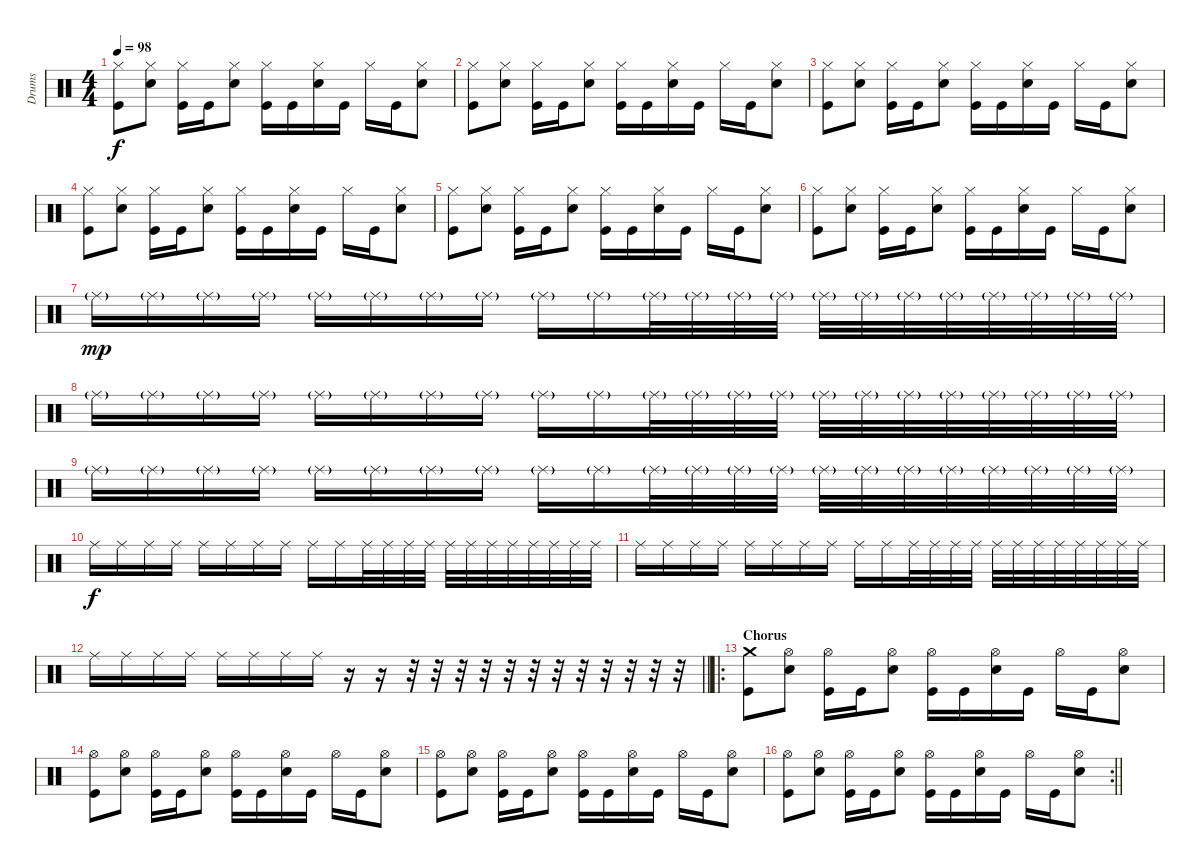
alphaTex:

\track ("Drums" "Drums") {instrument percussion}
\staff {score}
\articulation defaults
\ts (4 4)
\tempo 98
\clef neutral
\ks c
("Hi-Hat (closed)" "Kick (hit)").8{dy f} ("Hi-Hat (closed)" "Electric Snare (hit)").8 ("Hi-Hat (closed)" "Kick (hit)").16 "Kick (hit)".16 ("Hi-Hat (closed)" "Electric Snare (hit)").8 ("Hi-Hat (closed)" "Kick (hit)").16 "Kick (hit)".16 ("Hi-Hat (closed)" "Electric Snare (hit)").16 "Kick (hit)".16 "Hi-Hat (closed)".16 "Kick (hit)".16 ("Hi-Hat (closed)" "Electric Snare (hit)").8 |
("Hi-Hat (closed)" "Kick (hit)").8 ("Hi-Hat (closed)" "Electric Snare (hit)").8 ("Hi-Hat (closed)" "Kick (hit)").16 "Kick (hit)".16 ("Hi-Hat (closed)" "Electric Snare (hit)").8 ("Hi-Hat (closed)" "Kick (hit)").16 "Kick (hit)".16 ("Hi-Hat (closed)" "Electric Snare (hit)").16 "Kick (hit)".16 "Hi-Hat (closed)".16 "Kick (hit)".16 ("Hi-Hat (closed)" "Electric Snare (hit)").8 |
("Hi-Hat (closed)" "Kick (hit)").8 ("Hi-Hat (closed)" "Electric Snare (hit)").8 ("Hi-Hat (closed)" "Kick (hit)").16 "Kick (hit)".16 ("Hi-Hat (closed)" "Electric Snare (hit)").8 ("Hi-Hat (closed)" "Kick (hit)").16 "Kick (hit)".16 ("Hi-Hat (closed)" "Electric Snare (hit)").16 "Kick (hit)".16 "Hi-Hat (closed)".16 "Kick (hit)".16 ("Hi-Hat (closed)" "Electric Snare (hit)").8 |
("Hi-Hat (closed)" "Kick (hit)").8 ("Hi-Hat (closed)" "Electric Snare (hit)").8 ("Hi-Hat (closed)" "Kick (hit)").16 "Kick (hit)".16 ("Hi-Hat (closed)" "Electric Snare (hit)").8 ("Hi-Hat (closed)" "Kick (hit)").16 "Kick (hit)".16 ("Hi-Hat (closed)" "Electric Snare (hit)").16 "Kick (hit)".16 "Hi-Hat (closed)".16 "Kick (hit)".16 ("Hi-Hat (closed)" "Electric Snare (hit)").8 |
("Hi-Hat (closed)" "Kick (hit)").8 ("Hi-Hat (closed)" "Electric Snare (hit)").8 ("Hi-Hat (closed)" "Kick (hit)").16 "Kick (hit)".16 ("Hi-Hat (closed)" "Electric Snare (hit)").8 ("Hi-Hat (closed)" "Kick (hit)").16 "Kick (hit)".16 ("Hi-Hat (closed)" "Electric Snare (hit)").16 "Kick (hit)".16 "Hi-Hat (closed)".16 "Kick (hit)".16 ("Hi-Hat (closed)" "Electric Snare (hit)").8 |
("Hi-Hat (closed)" "Kick (hit)").8 ("Hi-Hat (closed)" "Electric Snare (hit)").8 ("Hi-Hat (closed)" "Kick (hit)").16 "Kick (hit)".16 ("Hi-Hat (closed)" "Electric Snare (hit)").8 ("Hi-Hat (closed)" "Kick (hit)").16 "Kick (hit)".16 ("Hi-Hat (closed)" "Electric Snare (hit)").16 "Kick (hit)".16 "Hi-Hat (closed)".16 "Kick (hit)".16 ("Hi-Hat (closed)" "Electric Snare (hit)").8 |
"Ride (middle)"{g}.16{dy mp} "Ride (middle)"{g}.16 "Ride (middle)"{g}.16 "Ride (middle)"{g}.16 "Ride (middle)"{g}.16 "Ride (middle)"{g}.16 "Ride (middle)"{g}.16 "Ride (middle)"{g}.16 "Ride (middle)"{g}.16 "Ride (middle)"{g}.16 "Ride (middle)"{g}.32 "Ride (middle)"{g}.32 "Ride (middle)"{g}.32 "Ride (middle)"{g}.32 "Ride (middle)"{g}.32 "Ride (middle)"{g}.32 "Ride (middle)"{g}.32 "Ride (middle)"{g}.32 "Ride (middle)"{g}.32 "Ride (middle)"{g}.32 "Ride (middle)"{g}.32 "Ride (middle)"{g}.32 |
"Ride (middle)"{g}.16 "Ride (middle)"{g}.16 "Ride (middle)"{g}.16 "Ride (middle)"{g}.16 "Ride (middle)"{g}.16 "Ride (middle)"{g}.16 "Ride (middle)"{g}.16 "Ride (middle)"{g}.16 "Ride (middle)"{g}.16 "Ride (middle)"{g}.16 "Ride (middle)"{g}.32 "Ride (middle)"{g}.32 "Ride (middle)"{g}.32 "Ride (middle)"{g}.32 "Ride (middle)"{g}.32 "Ride (middle)"{g}.32 "Ride (middle)"{g}.32 "Ride (middle)"{g}.32 "Ride (middle)"{g}.32 "Ride (middle)"{g}.32 "Ride (middle)"{g}.32 "Ride (middle)"{g}.32 |
"Ride (middle)"{g}.16 "Ride (middle)"{g}.16 "Ride (middle)"{g}.16 "Ride (middle)"{g}.16 "Ride (middle)"{g}.16 "Ride (middle)"{g}.16 "Ride (middle)"{g}.16 "Ride (middle)"{g}.16 "Ride (middle)"{g}.16 "Ride (middle)"{g}.16 "Ride (middle)"{g}.32 "Ride (middle)"{g}.32 "Ride (middle)"{g}.32 "Ride (middle)"{g}.32 "Ride (middle)"{g}.32 "Ride (middle)"{g}.32 "Ride (middle)"{g}.32 "Ride (middle)"{g}.32 "Ride (middle)"{g}.32 "Ride (middle)"{g}.32 "Ride (middle)"{g}.32 "Ride (middle)"{g}.32 |
"Ride (middle)".16{dy f} "Ride (middle)".16 "Ride (middle)".16 "Ride (middle)".16 "Ride (middle)".16 "Ride (middle)".16 "Ride (middle)".16 "Ride (middle)".16 "Ride (middle)".16 "Ride (middle)".16 "Ride (middle)".32 "Ride (middle)".32 "Ride (middle)".32 "Ride (middle)".32 "Ride (middle)".32 "Ride (middle)".32 "Ride (middle)".32 "Ride (middle)".32 "Ride (middle)".32 "Ride (middle)".32 "Ride (middle)".32 "Ride (middle)".32 |
"Ride (middle)".16 "Ride (middle)".16 "Ride (middle)".16 "Ride (middle)".16 "Ride (middle)".16 "Ride (middle)".16 "Ride (middle)".16 "Ride (middle)".16 "Ride (middle)".16 "Ride (middle)".16 "Ride (middle)".32 "Ride (middle)".32 "Ride (middle)".32 "Ride (middle)".32 "Ride (middle)".32 "Ride (middle)".32 "Ride (middle)".32 "Ride (middle)".32 "Ride (middle)".32 "Ride (middle)".32 "Ride (middle)".32 "Ride (middle)".32 |
\barLineRight lightlight "Ride (middle)".16 "Ride (middle)".16 "Ride (middle)".16 "Ride (middle)".16 "Ride (middle)".16 "Ride (middle)".16 "Ride (middle)".16 "Ride (middle)".16
r.16 r.16 r.32 r.32 r.32 r.32 r.32 r.32 r.32 r.32 r.32 r.32 r.32 r.32 |
\ro
\section ("" "Chorus")
("Crash medium (hit)" "Kick (hit)").8 ("Hi-Hat (open)" "Electric Snare (hit)").8 ("Hi-Hat (open)" "Kick (hit)").16 "Kick (hit)".16 ("Hi-Hat (open)" "Electric Snare (hit)").8 ("Hi-Hat (open)" "Kick (hit)").16 "Kick (hit)".16 ("Hi-Hat (open)" "Electric Snare (hit)").16 "Kick (hit)".16 "Hi-Hat (open)".16 "Kick (hit)".16 ("Hi-Hat (open)" "Electric Snare (hit)").8 |
("Hi-Hat (open)" "Kick (hit)").8 ("Hi-Hat (open)" "Electric Snare (hit)").8 ("Hi-Hat (open)" "Kick (hit)").16 "Kick (hit)".16 ("Hi-Hat (open)" "Electric Snare (hit)").8 ("Hi-Hat (open)" "Kick (hit)").16 "Kick (hit)".16 ("Hi-Hat (open)" "Electric Snare (hit)").16 "Kick (hit)".16 "Hi-Hat (open)".16 "Kick (hit)".16 ("Hi-Hat (open)" "Electric Snare (hit)").8 |
("Hi-Hat (open)" "Kick (hit)").8 ("Hi-Hat (open)" "Electric Snare (hit)").8 ("Hi-Hat (open)" "Kick (hit)").16 "Kick (hit)".16 ("Hi-Hat (open)" "Electric Snare (hit)").8 ("Hi-Hat (open)" "Kick (hit)").16 "Kick (hit)".16 ("Hi-Hat (open)" "Electric Snare (hit)").16 "Kick (hit)".16 "Hi-Hat (open)".16 "Kick (hit)".16 ("Hi-Hat (open)" "Electric Snare (hit)").8 |
\rc 2
\barLineRight lightlight
("Hi-Hat (open)" "Kick (hit)").8 ("Hi-Hat (open)" "Electric Snare (hit)").8 ("Hi-Hat (open)" "Kick (hit)").16 "Kick (hit)".16 ("Hi-Hat (open)" "Electric Snare (hit)").8 ("Hi-Hat (open)" "Kick (hit)").16 "Kick (hit)".16 ("Hi-Hat (open)" "Electric Snare (hit)").16 "Kick (hit)".16 "Hi-Hat (open)".16 "Kick (hit)".16 ("Hi-Hat (open)" "Electric Snare (hit)").8
